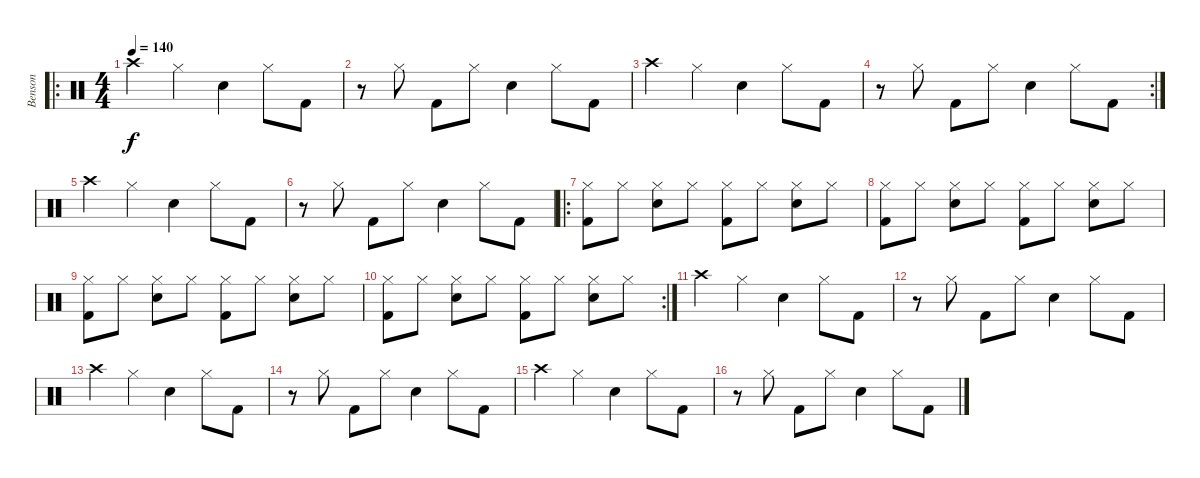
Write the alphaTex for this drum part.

\track ("Benson" "Benson") {instrument percussion}
\staff {score}
\articulation defaults
\ro
\ts (4 4)
\tempo 140
\clef neutral
\ks c "Crash high (hit)".4{dy f} "Hi-Hat (closed)".4 "Electric Snare (hit)".4 "Hi-Hat (closed)".8 "Kick (hit) 2".8
|
r.8 "Hi-Hat (closed)".8 "Kick (hit) 2".8 "Hi-Hat (closed)".8 "Electric Snare (hit)".4 "Hi-Hat (closed)".8 "Kick (hit) 2".8 |
"Crash high (hit)".4 "Hi-Hat (closed)".4 "Electric Snare (hit)".4 "Hi-Hat (closed)".8 "Kick (hit) 2".8 |
\rc 2
r.8 "Hi-Hat (closed)".8 "Kick (hit) 2".8 "Hi-Hat (closed)".8 "Electric Snare (hit)".4 "Hi-Hat (closed)".8 "Kick (hit) 2".8 |
"Crash high (hit)".4 "Hi-Hat (closed)".4 "Electric Snare (hit)".4 "Hi-Hat (closed)".8 "Kick (hit) 2".8 |
r.8 "Hi-Hat (closed)".8 "Kick (hit) 2".8 "Hi-Hat (closed)".8 "Electric Snare (hit)".4 "Hi-Hat (closed)".8 "Kick (hit) 2".8 |
\ro
("Hi-Hat (closed)" "Kick (hit) 2").8 "Hi-Hat (closed)".8 ("Hi-Hat (closed)" "Electric Snare (hit)").8 "Hi-Hat (closed)".8 ("Hi-Hat (closed)" "Kick (hit) 2").8 "Hi-Hat (closed)".8 ("Hi-Hat (closed)" "Electric Snare (hit)").8 "Hi-Hat (closed)".8 |
("Hi-Hat (closed)" "Kick (hit) 2").8 "Hi-Hat (closed)".8 ("Hi-Hat (closed)" "Electric Snare (hit)").8 "Hi-Hat (closed)".8 ("Hi-Hat (closed)" "Kick (hit) 2").8 "Hi-Hat (closed)".8 ("Hi-Hat (closed)" "Electric Snare (hit)").8 "Hi-Hat (closed)".8 |
("Hi-Hat (closed)" "Kick (hit) 2").8 "Hi-Hat (closed)".8 ("Hi-Hat (closed)" "Electric Snare (hit)").8 "Hi-Hat (closed)".8 ("Hi-Hat (closed)" "Kick (hit) 2").8 "Hi-Hat (closed)".8 ("Hi-Hat (closed)" "Electric Snare (hit)").8 "Hi-Hat (closed)".8 |
\rc 2
("Hi-Hat (closed)" "Kick (hit) 2").8 "Hi-Hat (closed)".8 ("Hi-Hat (closed)" "Electric Snare (hit)").8 "Hi-Hat (closed)".8 ("Hi-Hat (closed)" "Kick (hit) 2").8 "Hi-Hat (closed)".8 ("Hi-Hat (closed)" "Electric Snare (hit)").8 "Hi-Hat (closed)".8 |
"Crash high (hit)".4 "Hi-Hat (closed)".4 "Electric Snare (hit)".4 "Hi-Hat (closed)".8 "Kick (hit) 2".8 |
r.8 "Hi-Hat (closed)".8 "Kick (hit) 2".8 "Hi-Hat (closed)".8 "Electric Snare (hit)".4 "Hi-Hat (closed)".8 "Kick (hit) 2".8 |
"Crash high (hit)".4 "Hi-Hat (closed)".4 "Electric Snare (hit)".4 "Hi-Hat (closed)".8 "Kick (hit) 2".8 |
r.8 "Hi-Hat (closed)".8 "Kick (hit) 2".8 "Hi-Hat (closed)".8 "Electric Snare (hit)".4 "Hi-Hat (closed)".8 "Kick (hit) 2".8 |
"Crash high (hit)".4 "Hi-Hat (closed)".4 "Electric Snare (hit)".4 "Hi-Hat (closed)".8 "Kick (hit) 2".8 |
r.8 "Hi-Hat (closed)".8 "Kick (hit) 2".8 "Hi-Hat (closed)".8 "Electric Snare (hit)".4 "Hi-Hat (closed)".8 "Kick (hit) 2".8
